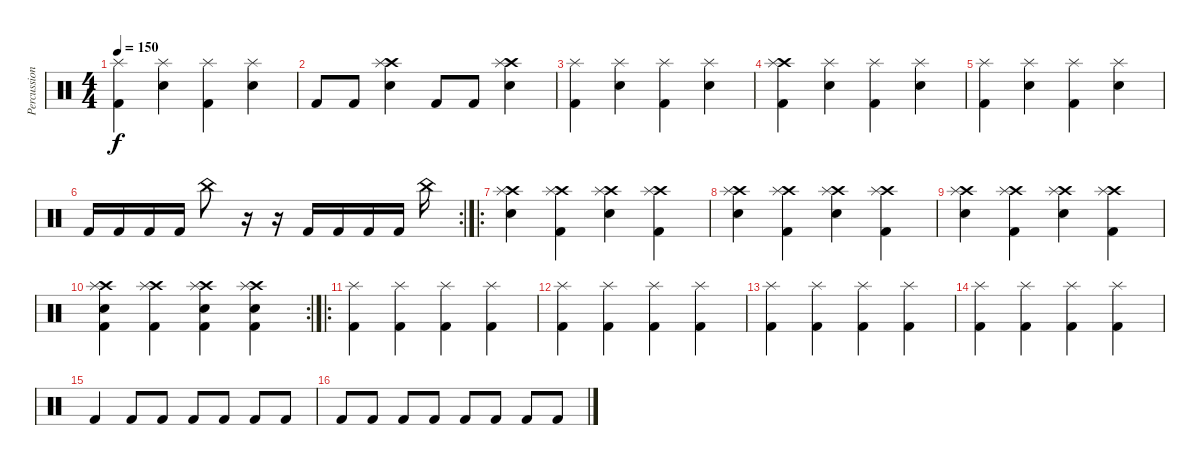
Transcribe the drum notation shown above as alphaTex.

\track ("Percussion" "Percussion") {instrument percussion}
\staff {score}
\articulation defaults
\ts (4 4)
\tempo 150
\clef neutral
\ks c
("Splash (hit)" "Kick (hit) 2").4{dy f} ("Splash (hit)" "Electric Snare (hit)").4 ("Splash (hit)" "Kick (hit) 2").4 ("Splash (hit)" "Electric Snare (hit)").4 |
"Kick (hit) 2".8 "Kick (hit) 2".8 ("Electric Snare (hit)" "Crash high (hit)" "Splash (hit)").4 "Kick (hit) 2".8 "Kick (hit) 2".8 ("Electric Snare (hit)" "Crash high (hit)" "Splash (hit)").4 |
("Splash (hit)" "Kick (hit) 2").4 ("Splash (hit)" "Electric Snare (hit)").4 ("Splash (hit)" "Kick (hit) 2").4 ("Splash (hit)" "Electric Snare (hit)").4 |
("Crash high (hit)" "Splash (hit)" "Kick (hit) 2").4 ("Splash (hit)" "Electric Snare (hit)").4 ("Splash (hit)" "Kick (hit) 2").4 ("Splash (hit)" "Electric Snare (hit)").4 |
("Splash (hit)" "Kick (hit) 2").4 ("Splash (hit)" "Electric Snare (hit)").4 ("Splash (hit)" "Kick (hit) 2").4 ("Splash (hit)" "Electric Snare (hit)").4 |
\rc 2 "Kick (hit) 2".16 "Kick (hit) 2".16 "Kick (hit) 2".16 "Kick (hit) 2".16 "China (hit)".8
r.16 r.16 "Kick (hit) 2".16 "Kick (hit) 2".16 "Kick (hit) 2".16 "Kick (hit) 2".16 "China (hit)".16 |
\ro
("Crash high (hit)" "Splash (hit)" "Electric Snare (hit)").4 ("Crash high (hit)" "Splash (hit)" "Kick (hit) 2").4 ("Crash high (hit)" "Splash (hit)" "Electric Snare (hit)").4 ("Crash high (hit)" "Splash (hit)" "Kick (hit) 2").4 |
("Crash high (hit)" "Splash (hit)" "Electric Snare (hit)").4 ("Crash high (hit)" "Splash (hit)" "Kick (hit) 2").4 ("Crash high (hit)" "Splash (hit)" "Electric Snare (hit)").4 ("Crash high (hit)" "Splash (hit)" "Kick (hit) 2").4 |
("Crash high (hit)" "Splash (hit)" "Electric Snare (hit)").4 ("Crash high (hit)" "Splash (hit)" "Kick (hit) 2").4 ("Crash high (hit)" "Splash (hit)" "Electric Snare (hit)").4 ("Crash high (hit)" "Splash (hit)" "Kick (hit) 2").4 |
\rc 2
("Crash high (hit)" "Splash (hit)" "Electric Snare (hit)" "Kick (hit) 2").4 ("Crash high (hit)" "Splash (hit)" "Kick (hit) 2").4 ("Crash high (hit)" "Splash (hit)" "Electric Snare (hit)" "Kick (hit) 2").4 ("Crash high (hit)" "Splash (hit)" "Electric Snare (hit)" "Kick (hit) 2").4 |
\ro
("Splash (hit)" "Kick (hit) 2").4 ("Splash (hit)" "Kick (hit) 2").4 ("Splash (hit)" "Kick (hit) 2").4 ("Splash (hit)" "Kick (hit) 2").4 |
("Splash (hit)" "Kick (hit) 2").4 ("Splash (hit)" "Kick (hit) 2").4 ("Splash (hit)" "Kick (hit) 2").4 ("Splash (hit)" "Kick (hit) 2").4 |
("Splash (hit)" "Kick (hit) 2").4 ("Splash (hit)" "Kick (hit) 2").4 ("Splash (hit)" "Kick (hit) 2").4 ("Splash (hit)" "Kick (hit) 2").4 |
("Splash (hit)" "Kick (hit) 2").4 ("Splash (hit)" "Kick (hit) 2").4 ("Splash (hit)" "Kick (hit) 2").4 ("Splash (hit)" "Kick (hit) 2").4 |
"Kick (hit) 2".4 "Kick (hit) 2".8 "Kick (hit) 2".8 "Kick (hit) 2".8 "Kick (hit) 2".8 "Kick (hit) 2".8 "Kick (hit) 2".8 |
"Kick (hit) 2".8 "Kick (hit) 2".8 "Kick (hit) 2".8 "Kick (hit) 2".8 "Kick (hit) 2".8 "Kick (hit) 2".8 "Kick (hit) 2".8 "Kick (hit) 2".8
